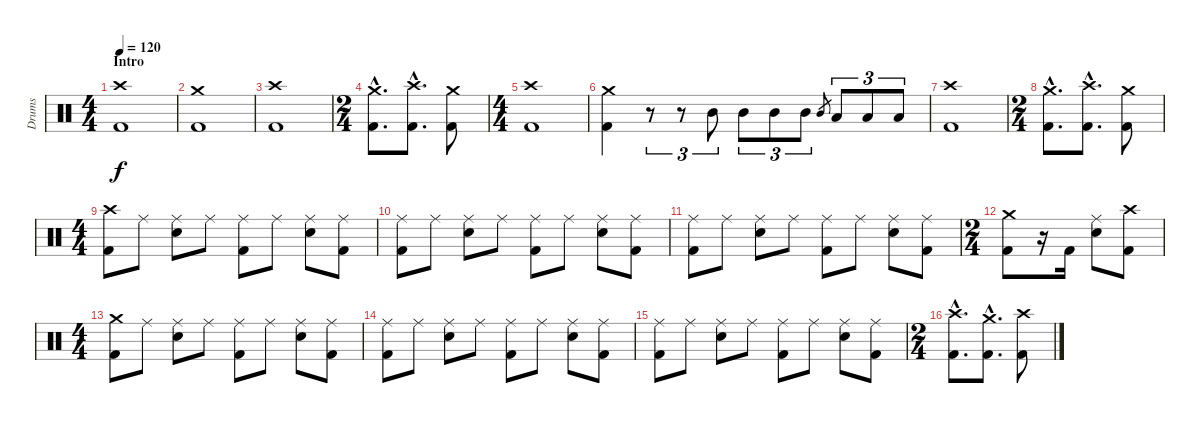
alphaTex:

\track ("Drums" "Drums") {instrument percussion}
\staff {score}
\articulation defaults
\ts (4 4)
\section ("" "Intro")
\tempo 120
\clef neutral
\ks c
("Crash high (hit)" "Kick (hit) 2").1{dy f} |
("Crash medium (hit)" "Kick (hit) 2").1 |
("Crash high (hit)" "Kick (hit) 2").1 |
\ts (2 4)
("Crash medium (hit)"{hac} "Kick (hit) 2"{hac}).8{d} ("Crash high (hit)"{hac} "Kick (hit) 2"{hac}).8{d} ("Crash medium (hit)" "Kick (hit) 2").8 |
\ts (4 4)
("Crash high (hit)" "Kick (hit) 2").1 |
("Crash medium (hit)" "Kick (hit) 2").4 r.8{tu (3 2)} r.8{tu (3 2)} "Mid Tom (hit)".8{tu (3 2)} "Mid Tom (hit)".8{tu (3 2)} "Mid Tom (hit)".8{tu (3 2)} "Mid Tom (hit)".8{tu (3 2)} "Mid Tom (hit)".8{gr} "Low Tom (hit)".8{tu (3 2)} "Low Tom (hit)".8{tu (3 2)} "Low Tom (hit)".8{tu (3 2)} |
("Crash high (hit)" "Kick (hit) 2").1 |
\ts (2 4)
("Crash medium (hit)"{hac} "Kick (hit) 2"{hac}).8{d} ("Crash high (hit)"{hac} "Kick (hit) 2"{hac}).8{d} ("Crash medium (hit)" "Kick (hit) 2").8 |
\ts (4 4)
("Crash high (hit)" "Kick (hit) 2").8 "Ride (middle)".8 ("Ride (middle)" "Snare (hit) 2").8 "Ride (middle)".8 ("Ride (middle)" "Kick (hit) 2").8 "Ride (middle)".8 ("Ride (middle)" "Snare (hit) 2").8 ("Ride (middle)" "Kick (hit) 2").8 |
("Ride (middle)" "Kick (hit) 2").8 "Ride (middle)".8 ("Ride (middle)" "Snare (hit) 2").8 "Ride (middle)".8 ("Ride (middle)" "Kick (hit) 2").8 "Ride (middle)".8 ("Ride (middle)" "Snare (hit) 2").8 ("Ride (middle)" "Kick (hit) 2").8 |
("Ride (middle)" "Kick (hit) 2").8 "Ride (middle)".8 ("Ride (middle)" "Snare (hit) 2").8 "Ride (middle)".8 ("Ride (middle)" "Kick (hit) 2").8 "Ride (middle)".8 ("Ride (middle)" "Snare (hit) 2").8 ("Ride (middle)" "Kick (hit) 2").8 |
\ts (2 4)
("Crash medium (hit)" "Kick (hit) 2").8 r.16 "Kick (hit) 2".16 ("Ride (middle)" "Snare (hit) 2").8 ("Crash high (hit)" "Kick (hit) 2").8 |
\ts (4 4)
("Crash medium (hit)" "Kick (hit) 2").8 "Ride (middle)".8 ("Ride (middle)" "Snare (hit) 2").8 "Ride (middle)".8 ("Ride (middle)" "Kick (hit) 2").8 "Ride (middle)".8 ("Ride (middle)" "Snare (hit) 2").8 ("Ride (middle)" "Kick (hit) 2").8 |
("Ride (middle)" "Kick (hit) 2").8 "Ride (middle)".8 ("Ride (middle)" "Snare (hit) 2").8 "Ride (middle)".8 ("Ride (middle)" "Kick (hit) 2").8 "Ride (middle)".8 ("Ride (middle)" "Snare (hit) 2").8 ("Ride (middle)" "Kick (hit) 2").8 |
("Ride (middle)" "Kick (hit) 2").8 "Ride (middle)".8 ("Ride (middle)" "Snare (hit) 2").8 "Ride (middle)".8 ("Ride (middle)" "Kick (hit) 2").8 "Ride (middle)".8 ("Ride (middle)" "Snare (hit) 2").8 ("Ride (middle)" "Kick (hit) 2").8 |
\ts (2 4)
("Crash high (hit)"{hac} "Kick (hit) 2"{hac}).8{d} ("Crash medium (hit)"{hac} "Kick (hit) 2"{hac}).8{d} ("Crash high (hit)" "Kick (hit) 2").8
